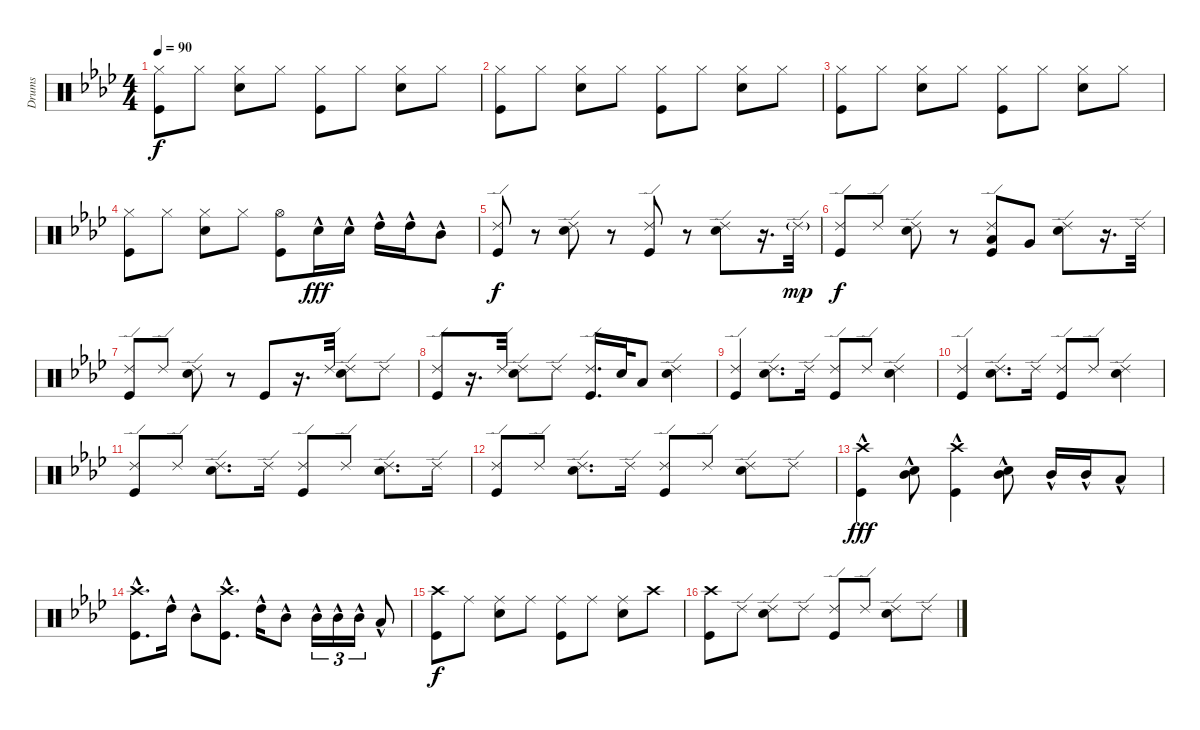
\track ("Drums" "Drums") {instrument percussion}
\staff {score}
\articulation defaults
\ts (4 4)
\tempo 90
\clef neutral
\ks ab
("Hi-Hat (closed)" "Kick (hit)").8{dy f} "Hi-Hat (closed)".8 ("Hi-Hat (closed)" "Snare (hit) 2").8 "Hi-Hat (closed)".8 ("Hi-Hat (closed)" "Kick (hit)").8 "Hi-Hat (closed)".8 ("Hi-Hat (closed)" "Snare (hit) 2").8 "Hi-Hat (closed)".8 |
("Hi-Hat (closed)" "Kick (hit)").8 "Hi-Hat (closed)".8 ("Hi-Hat (closed)" "Snare (hit) 2").8 "Hi-Hat (closed)".8 ("Hi-Hat (closed)" "Kick (hit)").8 "Hi-Hat (closed)".8 ("Hi-Hat (closed)" "Snare (hit) 2").8 "Hi-Hat (closed)".8 |
("Hi-Hat (closed)" "Kick (hit)").8 "Hi-Hat (closed)".8 ("Hi-Hat (closed)" "Snare (hit) 2").8 "Hi-Hat (closed)".8 ("Hi-Hat (closed)" "Kick (hit)").8 "Hi-Hat (closed)".8 ("Hi-Hat (closed)" "Snare (hit) 2").8 "Hi-Hat (closed)".8 |
("Hi-Hat (closed)" "Kick (hit)").8 "Hi-Hat (closed)".8 ("Hi-Hat (closed)" "Snare (hit) 2").8 "Hi-Hat (closed)".8 ("Hi-Hat (open)" "Kick (hit)").8 "Snare (hit) 2"{hac}.16{dy fff} "Snare (hit) 2"{hac}.16 "High Tom (hit)"{hac}.16 "High Tom (hit)"{hac}.16 "Mid Tom (hit)"{hac}.8 |
("Ride (edge) 2" "Kick (hit)").8{dy f} r.8 ("Ride (edge) 2" "Snare (hit) 2").8 r.8 ("Ride (edge) 2" "Kick (hit)").8 r.8 ("Ride (edge) 2" "Snare (hit) 2").8 r.16{d} "Ride (edge) 2"{g}.32{dy mp} |
("Ride (edge) 2" "Kick (hit)").8{dy f} "Ride (edge) 2".8 ("Ride (edge) 2" "Snare (hit) 2").8 r.8 ("Ride (edge) 2" "Low Tom (hit)" "Kick (hit)").8 "Very Low Tom (hit)".8 ("Ride (edge) 2" "Snare (hit) 2").8 r.16{d} "Ride (edge) 2".32 |
("Ride (edge) 2" "Kick (hit)").8 "Ride (edge) 2".8 ("Ride (edge) 2" "Snare (hit) 2").8 r.8 "Kick (hit)".8 r.16{d} "Ride (edge) 2".32 ("Ride (edge) 2" "Snare (hit) 2").8 "Ride (edge) 2".8 |
("Ride (edge) 2" "Kick (hit)").8 r.16{d} "Ride (edge) 2".32 ("Ride (edge) 2" "Snare (hit) 2").8 "Ride (edge) 2".8 ("Ride (edge) 2" "Kick (hit)").16{d} "Snare (hit) 2".32 "Low Tom (hit)".8 ("Ride (edge) 2" "Snare (hit) 2").4 |
("Ride (edge) 2" "Kick (hit)").4 ("Ride (edge) 2" "Snare (hit) 2").8{d} "Ride (edge) 2".16 ("Ride (edge) 2" "Kick (hit)").8 "Ride (edge) 2".8 ("Ride (edge) 2" "Snare (hit) 2").4 |
("Ride (edge) 2" "Kick (hit)").4 ("Ride (edge) 2" "Snare (hit) 2").8{d} "Ride (edge) 2".16 ("Ride (edge) 2" "Kick (hit)").8 "Ride (edge) 2".8 ("Ride (edge) 2" "Snare (hit) 2").4 |
("Ride (edge) 2" "Kick (hit)").8 "Ride (edge) 2".8 ("Ride (edge) 2" "Snare (hit) 2").8{d} "Ride (edge) 2".16 ("Ride (edge) 2" "Kick (hit)").8 "Ride (edge) 2".8 ("Ride (edge) 2" "Snare (hit) 2").8{d} "Ride (edge) 2".16 |
("Ride (edge) 2" "Kick (hit)").8 "Ride (edge) 2".8 ("Ride (edge) 2" "Snare (hit) 2").8{d} "Ride (edge) 2".16 ("Ride (edge) 2" "Kick (hit)").8 "Ride (edge) 2".8 ("Ride (edge) 2" "Snare (hit) 2").8 "Ride (edge) 2".8 |
("Crash high (hit)"{hac} "Kick (hit)"{hac}).4{dy fff} ("Mid Tom (hit)"{hac} "Snare (hit) 2"{hac}).8 ("Crash high (hit)"{hac} "Kick (hit)"{hac}).4 ("Mid Tom (hit)"{hac} "Snare (hit) 2"{hac}).8 "Mid Tom (hit)"{hac}.16 "Mid Tom (hit)"{hac}.16 "Low Tom (hit)"{hac}.8 |
("Crash high (hit)"{hac} "Kick (hit)"{hac}).8{d} "High Tom (hit)"{hac}.16 "Mid Tom (hit)"{hac}.8 ("Crash high (hit)"{hac} "Kick (hit)"{hac}).8{d} "High Tom (hit)"{hac}.16 "Mid Tom (hit)"{hac}.8 "Mid Tom (hit)"{hac}.16{tu (3 2)} "Mid Tom (hit)"{hac}.16{tu (3 2)} "Mid Tom (hit)"{hac}.16{tu (3 2)} "Low Tom (hit)"{hac}.8 |
("Crash high (hit)" "Kick (hit)").8{dy f} "Ride (middle)".8 ("Ride (middle)" "Snare (hit) 2").8 "Ride (middle)".8 ("Ride (middle)" "Kick (hit)").8 "Ride (middle)".8 ("Ride (middle)" "Snare (hit) 2").8 "Crash high (hit)".8 |
("Crash high (hit)" "Kick (hit)").8 "Ride (edge) 2".8 ("Ride (edge) 2" "Snare (hit) 2").8 "Ride (edge) 2".8 ("Ride (edge) 2" "Kick (hit)").8 "Ride (edge) 2".8 ("Ride (edge) 2" "Snare (hit) 2").8 "Ride (edge) 2".8
